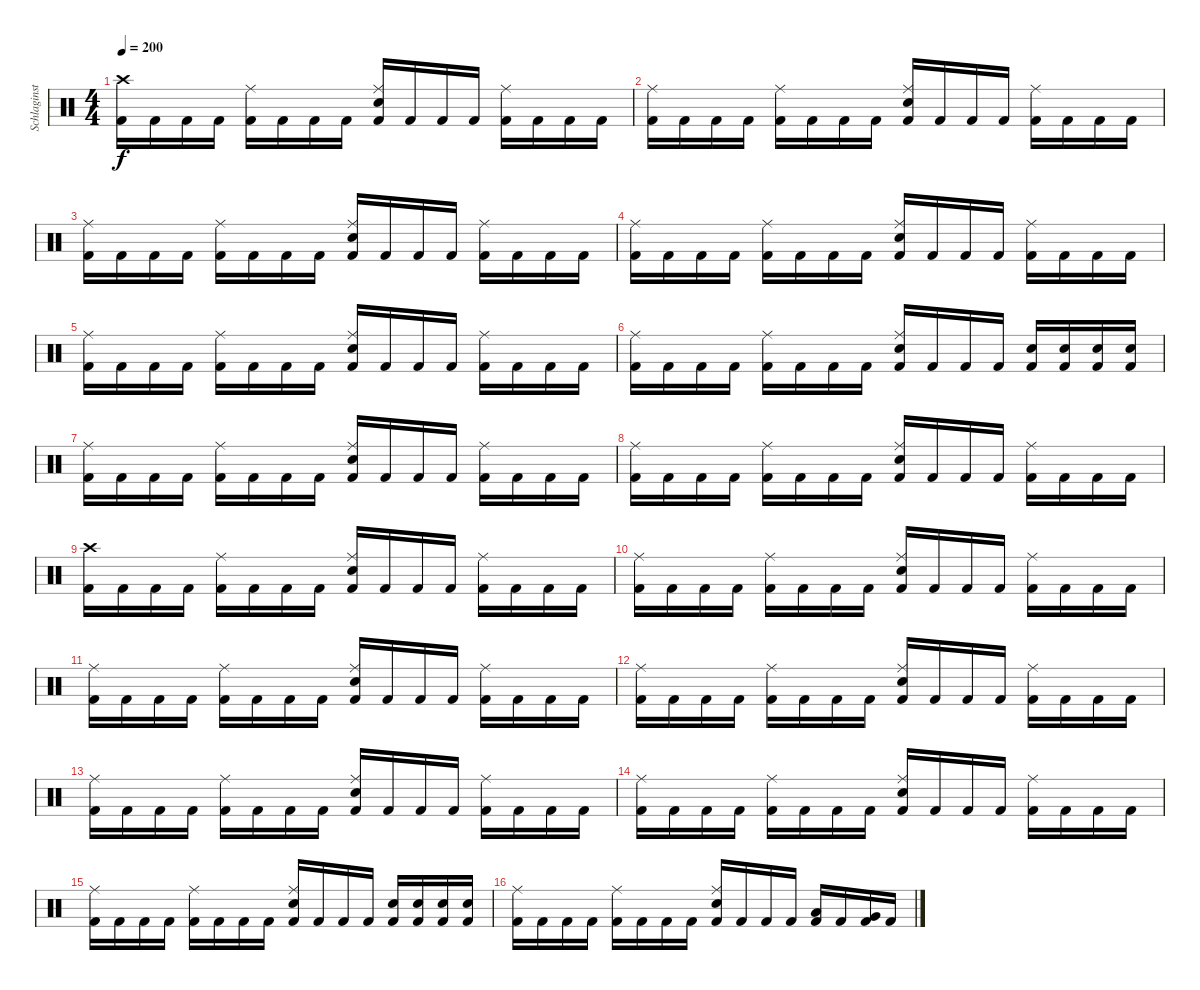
\track ("Schlaginstrumente - Auswahl" "Schlaginst") {instrument percussion}
\staff {score}
\articulation defaults
\ts (4 4)
\tempo 200
\tempo 175
\tempo 200
\clef neutral
\ks c
("Crash high (hit)" "Kick (hit) 2").16{dy f} "Kick (hit) 2".16 "Kick (hit) 2".16 "Kick (hit) 2".16 ("Ride (middle)" "Kick (hit) 2").16 "Kick (hit) 2".16 "Kick (hit) 2".16 "Kick (hit) 2".16 ("Snare (hit) 2" "Ride (middle)" "Kick (hit) 2").16 "Kick (hit) 2".16 "Kick (hit) 2".16 "Kick (hit) 2".16 ("Ride (middle)" "Kick (hit) 2").16 "Kick (hit) 2".16 "Kick (hit) 2".16 "Kick (hit) 2".16 |
("Ride (middle)" "Kick (hit) 2").16 "Kick (hit) 2".16 "Kick (hit) 2".16 "Kick (hit) 2".16 ("Ride (middle)" "Kick (hit) 2").16 "Kick (hit) 2".16 "Kick (hit) 2".16 "Kick (hit) 2".16 ("Snare (hit) 2" "Ride (middle)" "Kick (hit) 2").16 "Kick (hit) 2".16 "Kick (hit) 2".16 "Kick (hit) 2".16 ("Ride (middle)" "Kick (hit) 2").16 "Kick (hit) 2".16 "Kick (hit) 2".16 "Kick (hit) 2".16 |
("Ride (middle)" "Kick (hit) 2").16 "Kick (hit) 2".16 "Kick (hit) 2".16 "Kick (hit) 2".16 ("Ride (middle)" "Kick (hit) 2").16 "Kick (hit) 2".16 "Kick (hit) 2".16 "Kick (hit) 2".16 ("Snare (hit) 2" "Ride (middle)" "Kick (hit) 2").16 "Kick (hit) 2".16 "Kick (hit) 2".16 "Kick (hit) 2".16 ("Ride (middle)" "Kick (hit) 2").16 "Kick (hit) 2".16 "Kick (hit) 2".16 "Kick (hit) 2".16 |
("Ride (middle)" "Kick (hit) 2").16 "Kick (hit) 2".16 "Kick (hit) 2".16 "Kick (hit) 2".16 ("Ride (middle)" "Kick (hit) 2").16 "Kick (hit) 2".16 "Kick (hit) 2".16 "Kick (hit) 2".16 ("Snare (hit) 2" "Ride (middle)" "Kick (hit) 2").16 "Kick (hit) 2".16 "Kick (hit) 2".16 "Kick (hit) 2".16 ("Ride (middle)" "Kick (hit) 2").16 "Kick (hit) 2".16 "Kick (hit) 2".16 "Kick (hit) 2".16 |
("Ride (middle)" "Kick (hit) 2").16 "Kick (hit) 2".16 "Kick (hit) 2".16 "Kick (hit) 2".16 ("Ride (middle)" "Kick (hit) 2").16 "Kick (hit) 2".16 "Kick (hit) 2".16 "Kick (hit) 2".16 ("Snare (hit) 2" "Ride (middle)" "Kick (hit) 2").16 "Kick (hit) 2".16 "Kick (hit) 2".16 "Kick (hit) 2".16 ("Ride (middle)" "Kick (hit) 2").16 "Kick (hit) 2".16 "Kick (hit) 2".16 "Kick (hit) 2".16 |
("Ride (middle)" "Kick (hit) 2").16 "Kick (hit) 2".16 "Kick (hit) 2".16 "Kick (hit) 2".16 ("Ride (middle)" "Kick (hit) 2").16 "Kick (hit) 2".16 "Kick (hit) 2".16 "Kick (hit) 2".16 ("Snare (hit) 2" "Ride (middle)" "Kick (hit) 2").16 "Kick (hit) 2".16 "Kick (hit) 2".16 "Kick (hit) 2".16 ("Snare (hit) 2" "Kick (hit) 2").16 ("Snare (hit) 2" "Kick (hit) 2").16 ("Snare (hit) 2" "Kick (hit) 2").16 ("Snare (hit) 2" "Kick (hit) 2").16 |
("Ride (middle)" "Kick (hit) 2").16 "Kick (hit) 2".16 "Kick (hit) 2".16 "Kick (hit) 2".16 ("Ride (middle)" "Kick (hit) 2").16 "Kick (hit) 2".16 "Kick (hit) 2".16 "Kick (hit) 2".16 ("Snare (hit) 2" "Ride (middle)" "Kick (hit) 2").16 "Kick (hit) 2".16 "Kick (hit) 2".16 "Kick (hit) 2".16 ("Ride (middle)" "Kick (hit) 2").16 "Kick (hit) 2".16 "Kick (hit) 2".16 "Kick (hit) 2".16 |
("Ride (middle)" "Kick (hit) 2").16 "Kick (hit) 2".16 "Kick (hit) 2".16 "Kick (hit) 2".16 ("Ride (middle)" "Kick (hit) 2").16 "Kick (hit) 2".16 "Kick (hit) 2".16 "Kick (hit) 2".16 ("Snare (hit) 2" "Ride (middle)" "Kick (hit) 2").16 "Kick (hit) 2".16 "Kick (hit) 2".16 "Kick (hit) 2".16 ("Ride (middle)" "Kick (hit) 2").16 "Kick (hit) 2".16 "Kick (hit) 2".16 "Kick (hit) 2".16 |
("Crash high (hit)" "Kick (hit) 2").16 "Kick (hit) 2".16 "Kick (hit) 2".16 "Kick (hit) 2".16 ("Ride (middle)" "Kick (hit) 2").16 "Kick (hit) 2".16 "Kick (hit) 2".16 "Kick (hit) 2".16 ("Snare (hit) 2" "Ride (middle)" "Kick (hit) 2").16 "Kick (hit) 2".16 "Kick (hit) 2".16 "Kick (hit) 2".16 ("Ride (middle)" "Kick (hit) 2").16 "Kick (hit) 2".16 "Kick (hit) 2".16 "Kick (hit) 2".16 |
("Ride (middle)" "Kick (hit) 2").16 "Kick (hit) 2".16 "Kick (hit) 2".16 "Kick (hit) 2".16 ("Ride (middle)" "Kick (hit) 2").16 "Kick (hit) 2".16 "Kick (hit) 2".16 "Kick (hit) 2".16 ("Snare (hit) 2" "Ride (middle)" "Kick (hit) 2").16 "Kick (hit) 2".16 "Kick (hit) 2".16 "Kick (hit) 2".16 ("Ride (middle)" "Kick (hit) 2").16 "Kick (hit) 2".16 "Kick (hit) 2".16 "Kick (hit) 2".16 |
("Ride (middle)" "Kick (hit) 2").16 "Kick (hit) 2".16 "Kick (hit) 2".16 "Kick (hit) 2".16 ("Ride (middle)" "Kick (hit) 2").16 "Kick (hit) 2".16 "Kick (hit) 2".16 "Kick (hit) 2".16 ("Snare (hit) 2" "Ride (middle)" "Kick (hit) 2").16 "Kick (hit) 2".16 "Kick (hit) 2".16 "Kick (hit) 2".16 ("Ride (middle)" "Kick (hit) 2").16 "Kick (hit) 2".16 "Kick (hit) 2".16 "Kick (hit) 2".16 |
("Ride (middle)" "Kick (hit) 2").16 "Kick (hit) 2".16 "Kick (hit) 2".16 "Kick (hit) 2".16 ("Ride (middle)" "Kick (hit) 2").16 "Kick (hit) 2".16 "Kick (hit) 2".16 "Kick (hit) 2".16 ("Snare (hit) 2" "Ride (middle)" "Kick (hit) 2").16 "Kick (hit) 2".16 "Kick (hit) 2".16 "Kick (hit) 2".16 ("Ride (middle)" "Kick (hit) 2").16 "Kick (hit) 2".16 "Kick (hit) 2".16 "Kick (hit) 2".16 |
("Ride (middle)" "Kick (hit) 2").16 "Kick (hit) 2".16 "Kick (hit) 2".16 "Kick (hit) 2".16 ("Ride (middle)" "Kick (hit) 2").16 "Kick (hit) 2".16 "Kick (hit) 2".16 "Kick (hit) 2".16 ("Snare (hit) 2" "Ride (middle)" "Kick (hit) 2").16 "Kick (hit) 2".16 "Kick (hit) 2".16 "Kick (hit) 2".16 ("Ride (middle)" "Kick (hit) 2").16 "Kick (hit) 2".16 "Kick (hit) 2".16 "Kick (hit) 2".16 |
("Ride (middle)" "Kick (hit) 2").16 "Kick (hit) 2".16 "Kick (hit) 2".16 "Kick (hit) 2".16 ("Ride (middle)" "Kick (hit) 2").16 "Kick (hit) 2".16 "Kick (hit) 2".16 "Kick (hit) 2".16 ("Snare (hit) 2" "Ride (middle)" "Kick (hit) 2").16 "Kick (hit) 2".16 "Kick (hit) 2".16 "Kick (hit) 2".16 ("Ride (middle)" "Kick (hit) 2").16 "Kick (hit) 2".16 "Kick (hit) 2".16 "Kick (hit) 2".16 |
("Ride (middle)" "Kick (hit) 2").16 "Kick (hit) 2".16 "Kick (hit) 2".16 "Kick (hit) 2".16 ("Ride (middle)" "Kick (hit) 2").16 "Kick (hit) 2".16 "Kick (hit) 2".16 "Kick (hit) 2".16 ("Snare (hit) 2" "Ride (middle)" "Kick (hit) 2").16 "Kick (hit) 2".16 "Kick (hit) 2".16 "Kick (hit) 2".16 ("Snare (hit) 2" "Kick (hit) 2").16 ("Snare (hit) 2" "Kick (hit) 2").16 ("Snare (hit) 2" "Kick (hit) 2").16 ("Snare (hit) 2" "Kick (hit) 2").16 |
("Ride (middle)" "Kick (hit) 2").16 "Kick (hit) 2".16 "Kick (hit) 2".16 "Kick (hit) 2".16 ("Ride (middle)" "Kick (hit) 2").16 "Kick (hit) 2".16 "Kick (hit) 2".16 "Kick (hit) 2".16 ("Snare (hit) 2" "Ride (middle)" "Kick (hit) 2").16 "Kick (hit) 2".16 "Kick (hit) 2".16 "Kick (hit) 2".16 ("Low Tom (hit)" "Kick (hit) 2").16 "Kick (hit) 2".16 ("Very Low Tom (hit)" "Kick (hit) 2").16 "Kick (hit) 2".16
